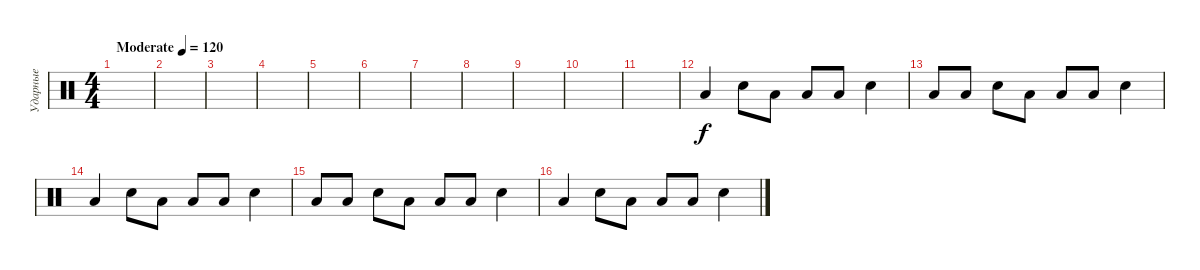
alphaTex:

\track ("Ударные" "Ударные") {instrument percussion}
\staff {score}
\articulation defaults
\ts (4 4)
\tempo (120 "Moderate")
\clef neutral
\ks c
|
|
|
\section ("" "")
|
|
|
|
|
|
|
|
\section ("" "")
"Low Floor Tom (hit)".4 "Hand Clap (hit)".8 "Low Floor Tom (hit)".8 "Low Floor Tom (hit)".8 "Low Floor Tom (hit)".8 "Hand Clap (hit)".4 |
"Low Floor Tom (hit)".8 "Low Floor Tom (hit)".8 "Hand Clap (hit)".8 "Low Floor Tom (hit)".8 "Low Floor Tom (hit)".8 "Low Floor Tom (hit)".8 "Hand Clap (hit)".4 |
"Low Floor Tom (hit)".4 "Hand Clap (hit)".8 "Low Floor Tom (hit)".8 "Low Floor Tom (hit)".8 "Low Floor Tom (hit)".8 "Hand Clap (hit)".4 |
"Low Floor Tom (hit)".8 "Low Floor Tom (hit)".8 "Hand Clap (hit)".8 "Low Floor Tom (hit)".8 "Low Floor Tom (hit)".8 "Low Floor Tom (hit)".8 "Hand Clap (hit)".4 |
"Low Floor Tom (hit)".4 "Hand Clap (hit)".8 "Low Floor Tom (hit)".8 "Low Floor Tom (hit)".8 "Low Floor Tom (hit)".8 "Hand Clap (hit)".4
